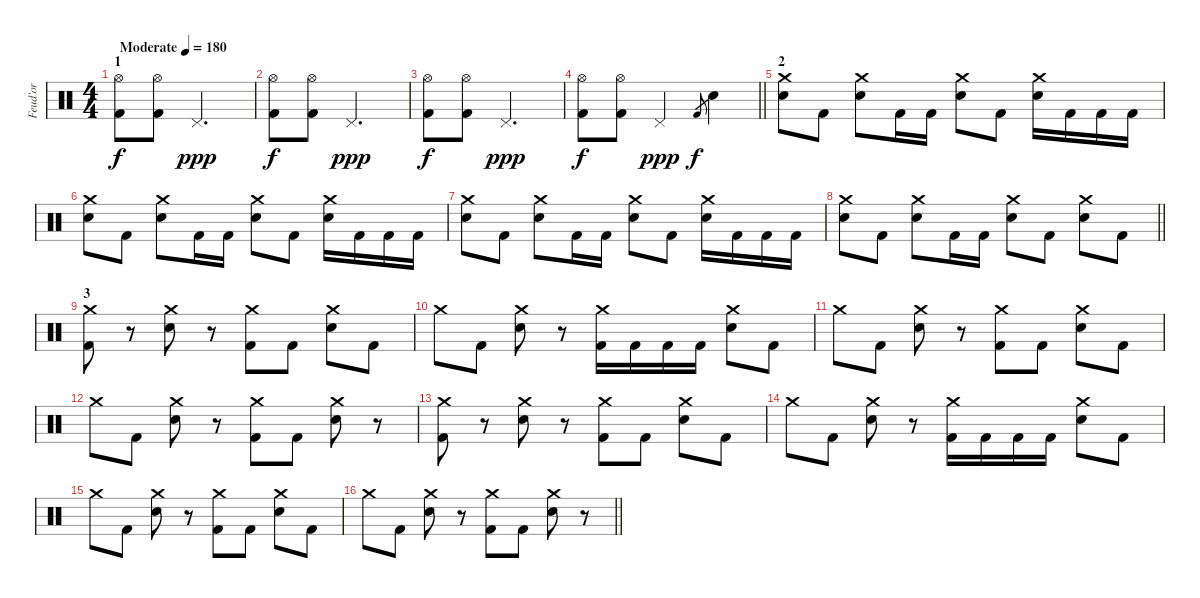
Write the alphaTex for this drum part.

\track ("Feud'or" "Feud'or") {instrument percussion}
\staff {score}
\articulation defaults
\ts (4 4)
\section ("" "1")
\tempo (180 "Moderate")
\clef neutral
\ks c
("Hi-Hat (open)" "Kick (hit) 2").8{dy f} ("Hi-Hat (open)" "Kick (hit) 2").8 "Pedal Hi-Hat (hit)".2{d dy ppp} |
("Hi-Hat (open)" "Kick (hit) 2").8{dy f} ("Hi-Hat (open)" "Kick (hit) 2").8 "Pedal Hi-Hat (hit)".2{d dy ppp} |
("Hi-Hat (open)" "Kick (hit) 2").8{dy f} ("Hi-Hat (open)" "Kick (hit) 2").8 "Pedal Hi-Hat (hit)".2{d dy ppp} |
\barLineRight lightlight
("Hi-Hat (open)" "Kick (hit) 2").8{dy f} ("Hi-Hat (open)" "Kick (hit) 2").8 "Pedal Hi-Hat (hit)".2{dy ppp} "Kick (hit) 2".8{gr dy f} "Snare (hit) 2".4 |
\section ("" "2")
("Crash medium (hit)" "Snare (hit) 2").8 "Kick (hit) 2".8 ("Crash medium (hit)" "Snare (hit) 2").8 "Kick (hit) 2".16 "Kick (hit) 2".16 ("Crash medium (hit)" "Snare (hit) 2").8 "Kick (hit) 2".8 ("Crash medium (hit)" "Snare (hit) 2").16 "Kick (hit) 2".16 "Kick (hit) 2".16 "Kick (hit) 2".16 |
("Crash medium (hit)" "Snare (hit) 2").8 "Kick (hit) 2".8 ("Crash medium (hit)" "Snare (hit) 2").8 "Kick (hit) 2".16 "Kick (hit) 2".16 ("Crash medium (hit)" "Snare (hit) 2").8 "Kick (hit) 2".8 ("Crash medium (hit)" "Snare (hit) 2").16 "Kick (hit) 2".16 "Kick (hit) 2".16 "Kick (hit) 2".16 |
("Crash medium (hit)" "Snare (hit) 2").8 "Kick (hit) 2".8 ("Crash medium (hit)" "Snare (hit) 2").8 "Kick (hit) 2".16 "Kick (hit) 2".16 ("Crash medium (hit)" "Snare (hit) 2").8 "Kick (hit) 2".8 ("Crash medium (hit)" "Snare (hit) 2").16 "Kick (hit) 2".16 "Kick (hit) 2".16 "Kick (hit) 2".16 |
\barLineRight lightlight
("Crash medium (hit)" "Snare (hit) 2").8 "Kick (hit) 2".8 ("Crash medium (hit)" "Snare (hit) 2").8 "Kick (hit) 2".16 "Kick (hit) 2".16 ("Crash medium (hit)" "Snare (hit) 2").8 "Kick (hit) 2".8 ("Crash medium (hit)" "Snare (hit) 2").8 "Kick (hit) 2".8 |
\section ("" "3")
("Crash medium (hit)" "Kick (hit) 2").8 r.8 ("Crash medium (hit)" "Snare (hit) 2").8 r.8 ("Crash medium (hit)" "Kick (hit) 2").8 "Kick (hit) 2".8 ("Crash medium (hit)" "Snare (hit) 2").8 "Kick (hit) 2".8 |
"Crash medium (hit)".8 "Kick (hit) 2".8 ("Crash medium (hit)" "Snare (hit) 2").8 r.8 ("Crash medium (hit)" "Kick (hit) 2").16 "Kick (hit) 2".16 "Kick (hit) 2".16 "Kick (hit) 2".16 ("Crash medium (hit)" "Snare (hit) 2").8 "Kick (hit) 2".8 |
"Crash medium (hit)".8 "Kick (hit) 2".8 ("Crash medium (hit)" "Snare (hit) 2").8 r.8 ("Crash medium (hit)" "Kick (hit) 2").8 "Kick (hit) 2".8 ("Crash medium (hit)" "Snare (hit) 2").8 "Kick (hit) 2".8 |
"Crash medium (hit)".8 "Kick (hit) 2".8 ("Crash medium (hit)" "Snare (hit) 2").8 r.8 ("Crash medium (hit)" "Kick (hit) 2").8 "Kick (hit) 2".8 ("Crash medium (hit)" "Snare (hit) 2").8 r.8 |
("Crash medium (hit)" "Kick (hit) 2").8 r.8 ("Crash medium (hit)" "Snare (hit) 2").8 r.8 ("Crash medium (hit)" "Kick (hit) 2").8 "Kick (hit) 2".8 ("Crash medium (hit)" "Snare (hit) 2").8 "Kick (hit) 2".8 |
"Crash medium (hit)".8 "Kick (hit) 2".8 ("Crash medium (hit)" "Snare (hit) 2").8 r.8 ("Crash medium (hit)" "Kick (hit) 2").16 "Kick (hit) 2".16 "Kick (hit) 2".16 "Kick (hit) 2".16 ("Crash medium (hit)" "Snare (hit) 2").8 "Kick (hit) 2".8 |
"Crash medium (hit)".8 "Kick (hit) 2".8 ("Crash medium (hit)" "Snare (hit) 2").8 r.8 ("Crash medium (hit)" "Kick (hit) 2").8 "Kick (hit) 2".8 ("Crash medium (hit)" "Snare (hit) 2").8 "Kick (hit) 2".8 |
\barLineRight lightlight "Crash medium (hit)".8 "Kick (hit) 2".8
("Crash medium (hit)" "Snare (hit) 2").8 r.8 ("Crash medium (hit)" "Kick (hit) 2").8 "Kick (hit) 2".8 ("Crash medium (hit)" "Snare (hit) 2").8 r.8
